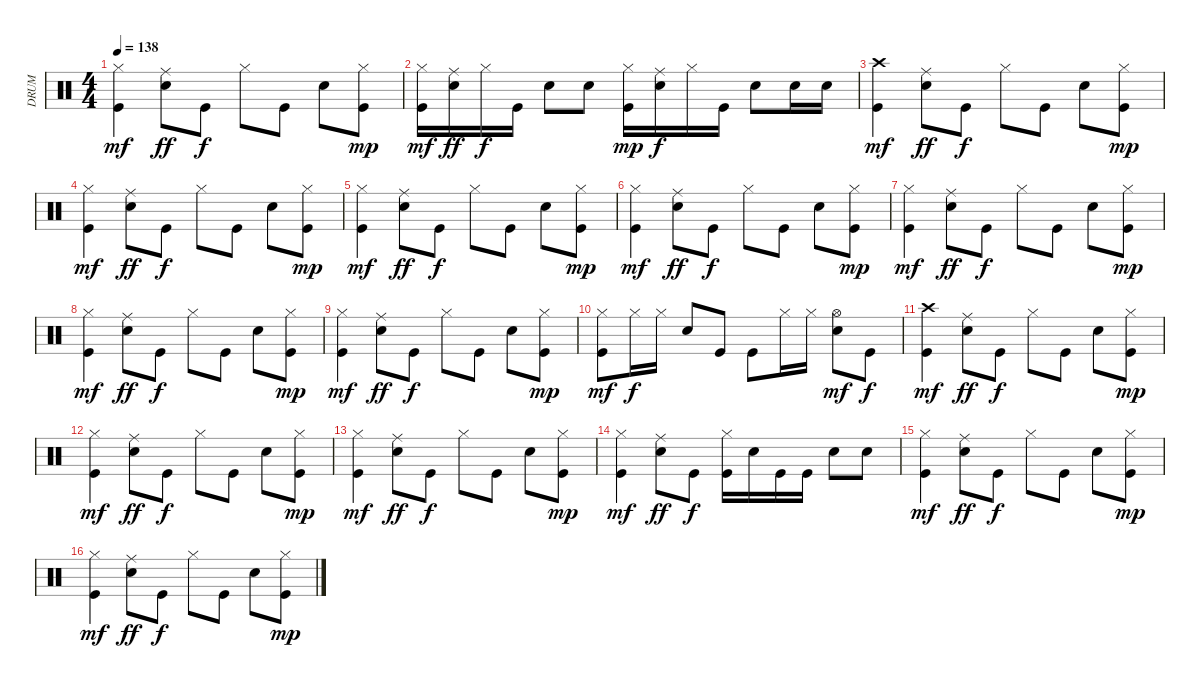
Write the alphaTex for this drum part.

\track ("DRUM" "DRUM") {instrument percussion}
\staff {score}
\articulation defaults
\ts (4 4)
\tempo 138
\clef neutral
\ks c
("Hi-Hat (closed)" "Kick (hit)").4{dy mf} ("Ride (middle)" "Snare (hit) 2").8{dy ff} "Kick (hit)".8{dy f} "Hi-Hat (closed)".8 "Kick (hit)".8 "Snare (hit) 2".8 ("Hi-Hat (closed)" "Kick (hit)").8{dy mp} |
("Hi-Hat (closed)" "Kick (hit)").16{dy mf} ("Ride (middle)" "Snare (hit) 2").16{dy ff} "Hi-Hat (closed)".16{dy f} "Kick (hit)".16 "Snare (hit) 2".8 "Snare (hit) 2".8 ("Hi-Hat (closed)" "Kick (hit)").16{dy mp} ("Ride (middle)" "Snare (hit) 2").16{dy f} "Hi-Hat (closed)".16 "Kick (hit)".16 "Snare (hit) 2".8 "Snare (hit) 2".16 "Snare (hit) 2".16 |
("Crash high (hit)" "Kick (hit)").4{dy mf} ("Ride (middle)" "Snare (hit) 2").8{dy ff} "Kick (hit)".8{dy f} "Hi-Hat (closed)".8 "Kick (hit)".8 "Snare (hit) 2".8 ("Hi-Hat (closed)" "Kick (hit)").8{dy mp} |
("Hi-Hat (closed)" "Kick (hit)").4{dy mf} ("Ride (middle)" "Snare (hit) 2").8{dy ff} "Kick (hit)".8{dy f} "Hi-Hat (closed)".8 "Kick (hit)".8 "Snare (hit) 2".8 ("Hi-Hat (closed)" "Kick (hit)").8{dy mp} |
("Hi-Hat (closed)" "Kick (hit)").4{dy mf} ("Ride (middle)" "Snare (hit) 2").8{dy ff} "Kick (hit)".8{dy f} "Hi-Hat (closed)".8 "Kick (hit)".8 "Snare (hit) 2".8 ("Hi-Hat (closed)" "Kick (hit)").8{dy mp} |
("Hi-Hat (closed)" "Kick (hit)").4{dy mf} ("Ride (middle)" "Snare (hit) 2").8{dy ff} "Kick (hit)".8{dy f} "Hi-Hat (closed)".8 "Kick (hit)".8 "Snare (hit) 2".8 ("Hi-Hat (closed)" "Kick (hit)").8{dy mp} |
("Hi-Hat (closed)" "Kick (hit)").4{dy mf} ("Ride (middle)" "Snare (hit) 2").8{dy ff} "Kick (hit)".8{dy f} "Hi-Hat (closed)".8 "Kick (hit)".8 "Snare (hit) 2".8 ("Hi-Hat (closed)" "Kick (hit)").8{dy mp} |
("Hi-Hat (closed)" "Kick (hit)").4{dy mf} ("Ride (middle)" "Snare (hit) 2").8{dy ff} "Kick (hit)".8{dy f} "Hi-Hat (closed)".8 "Kick (hit)".8 "Snare (hit) 2".8 ("Hi-Hat (closed)" "Kick (hit)").8{dy mp} |
("Hi-Hat (closed)" "Kick (hit)").4{dy mf} ("Ride (middle)" "Snare (hit) 2").8{dy ff} "Kick (hit)".8{dy f} "Hi-Hat (closed)".8 "Kick (hit)".8 "Snare (hit) 2".8 ("Hi-Hat (closed)" "Kick (hit)").8{dy mp} |
("Hi-Hat (closed)" "Kick (hit)").8{dy mf} "Hi-Hat (closed)".16{dy f} "Hi-Hat (closed)".16 "Snare (hit) 2".8 "Kick (hit)".8 "Kick (hit)".8 "Hi-Hat (closed)".16 "Hi-Hat (closed)".16 ("Snare (hit) 2" "Hi-Hat (open)").8{dy mf} "Kick (hit)".8{dy f} |
("Crash high (hit)" "Kick (hit)").4{dy mf} ("Ride (middle)" "Snare (hit) 2").8{dy ff} "Kick (hit)".8{dy f} "Hi-Hat (closed)".8 "Kick (hit)".8 "Snare (hit) 2".8 ("Hi-Hat (closed)" "Kick (hit)").8{dy mp} |
("Hi-Hat (closed)" "Kick (hit)").4{dy mf} ("Ride (middle)" "Snare (hit) 2").8{dy ff} "Kick (hit)".8{dy f} "Hi-Hat (closed)".8 "Kick (hit)".8 "Snare (hit) 2".8 ("Hi-Hat (closed)" "Kick (hit)").8{dy mp} |
("Hi-Hat (closed)" "Kick (hit)").4{dy mf} ("Ride (middle)" "Snare (hit) 2").8{dy ff} "Kick (hit)".8{dy f} "Hi-Hat (closed)".8 "Kick (hit)".8 "Snare (hit) 2".8 ("Hi-Hat (closed)" "Kick (hit)").8{dy mp} |
("Hi-Hat (closed)" "Kick (hit)").4{dy mf} ("Ride (middle)" "Snare (hit) 2").8{dy ff} "Kick (hit)".8{dy f} ("Hi-Hat (closed)" "Kick (hit)").16 "Snare (hit) 2".16 "Kick (hit)".16 "Kick (hit)".16 "Snare (hit) 2".8 "Snare (hit) 2".8 |
("Hi-Hat (closed)" "Kick (hit)").4{dy mf} ("Ride (middle)" "Snare (hit) 2").8{dy ff} "Kick (hit)".8{dy f} "Hi-Hat (closed)".8 "Kick (hit)".8 "Snare (hit) 2".8 ("Hi-Hat (closed)" "Kick (hit)").8{dy mp} |
("Hi-Hat (closed)" "Kick (hit)").4{dy mf} ("Ride (middle)" "Snare (hit) 2").8{dy ff} "Kick (hit)".8{dy f} "Hi-Hat (closed)".8 "Kick (hit)".8 "Snare (hit) 2".8 ("Hi-Hat (closed)" "Kick (hit)").8{dy mp}
